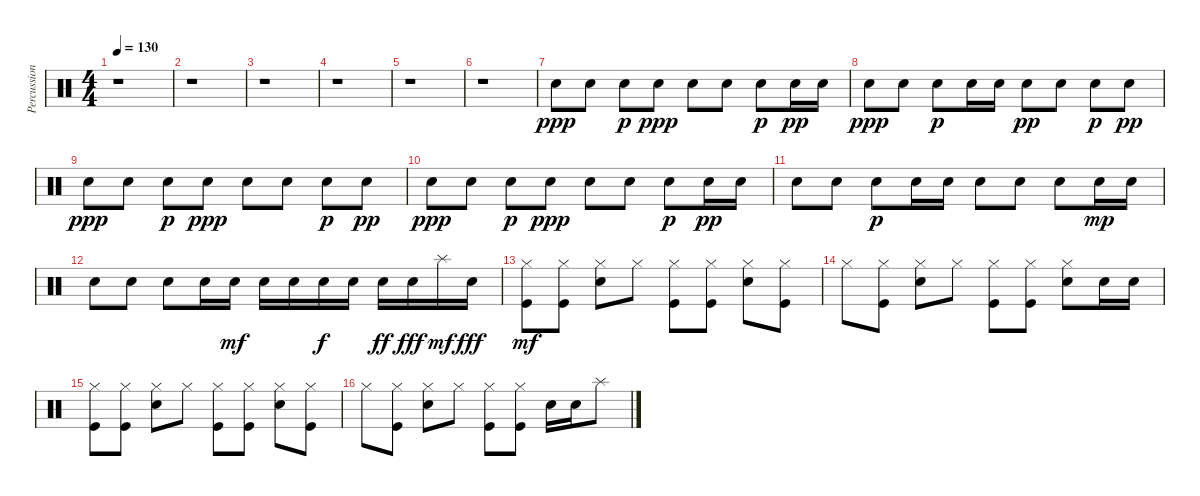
\track ("Percussion" "Percussion") {instrument percussion}
\staff {score}
\articulation defaults
\ts (4 4)
\tempo 130
\clef neutral
\ks c
r.1{dy ppp} |
r.1 |
r.1 |
r.1 |
r.1 |
r.1 |
"Snare (hit) 2".8 "Snare (hit) 2".8 "Snare (hit) 2".8{dy p} "Snare (hit) 2".8{dy ppp} "Snare (hit) 2".8 "Snare (hit) 2".8 "Snare (hit) 2".8{dy p} "Snare (hit) 2".16{dy pp} "Snare (hit) 2".16 |
"Snare (hit) 2".8{dy ppp} "Snare (hit) 2".8 "Snare (hit) 2".8{dy p} "Snare (hit) 2".16 "Snare (hit) 2".16 "Snare (hit) 2".8{dy pp} "Snare (hit) 2".8 "Snare (hit) 2".8{dy p} "Snare (hit) 2".8{dy pp} |
"Snare (hit) 2".8{dy ppp} "Snare (hit) 2".8 "Snare (hit) 2".8{dy p} "Snare (hit) 2".8{dy ppp} "Snare (hit) 2".8 "Snare (hit) 2".8 "Snare (hit) 2".8{dy p} "Snare (hit) 2".8{dy pp} |
"Snare (hit) 2".8{dy ppp} "Snare (hit) 2".8 "Snare (hit) 2".8{dy p} "Snare (hit) 2".8{dy ppp} "Snare (hit) 2".8 "Snare (hit) 2".8 "Snare (hit) 2".8{dy p} "Snare (hit) 2".16{dy pp} "Snare (hit) 2".16 |
"Snare (hit) 2".8 "Snare (hit) 2".8 "Snare (hit) 2".8{dy p} "Snare (hit) 2".16 "Snare (hit) 2".16 "Snare (hit) 2".8 "Snare (hit) 2".8 "Snare (hit) 2".8 "Snare (hit) 2".16{dy mp} "Snare (hit) 2".16 |
"Snare (hit) 2".8 "Snare (hit) 2".8 "Snare (hit) 2".8 "Snare (hit) 2".16 "Snare (hit) 2".16{dy mf} "Snare (hit) 2".16 "Snare (hit) 2".16 "Snare (hit) 2".16{dy f} "Snare (hit) 2".16 "Snare (hit) 2".16{dy ff} "Snare (hit) 2".16{dy fff} "Splash (hit)".16{dy mf} "Snare (hit) 2".16{dy fff} |
("Hi-Hat (closed)" "Kick (hit)").8{dy mf} ("Hi-Hat (closed)" "Kick (hit)").8 ("Hi-Hat (closed)" "Snare (hit) 2").8 "Hi-Hat (closed)".8 ("Hi-Hat (closed)" "Kick (hit)").8 ("Hi-Hat (closed)" "Kick (hit)").8 ("Hi-Hat (closed)" "Snare (hit) 2").8 ("Hi-Hat (closed)" "Kick (hit)").8 |
"Hi-Hat (closed)".8 ("Hi-Hat (closed)" "Kick (hit)").8 ("Hi-Hat (closed)" "Snare (hit) 2").8 "Hi-Hat (closed)".8 ("Hi-Hat (closed)" "Kick (hit)").8 ("Hi-Hat (closed)" "Kick (hit)").8 ("Hi-Hat (closed)" "Snare (hit) 2").8 "Snare (hit) 2".16 "Snare (hit) 2".16 |
("Hi-Hat (closed)" "Kick (hit)").8 ("Hi-Hat (closed)" "Kick (hit)").8 ("Hi-Hat (closed)" "Snare (hit) 2").8 "Hi-Hat (closed)".8 ("Hi-Hat (closed)" "Kick (hit)").8 ("Hi-Hat (closed)" "Kick (hit)").8 ("Hi-Hat (closed)" "Snare (hit) 2").8 ("Hi-Hat (closed)" "Kick (hit)").8 |
"Hi-Hat (closed)".8 ("Hi-Hat (closed)" "Kick (hit)").8 ("Hi-Hat (closed)" "Snare (hit) 2").8 "Hi-Hat (closed)".8 ("Hi-Hat (closed)" "Kick (hit)").8 ("Hi-Hat (closed)" "Kick (hit)").8 "Snare (hit) 2".16 "Snare (hit) 2".16 "Splash (hit)".8
